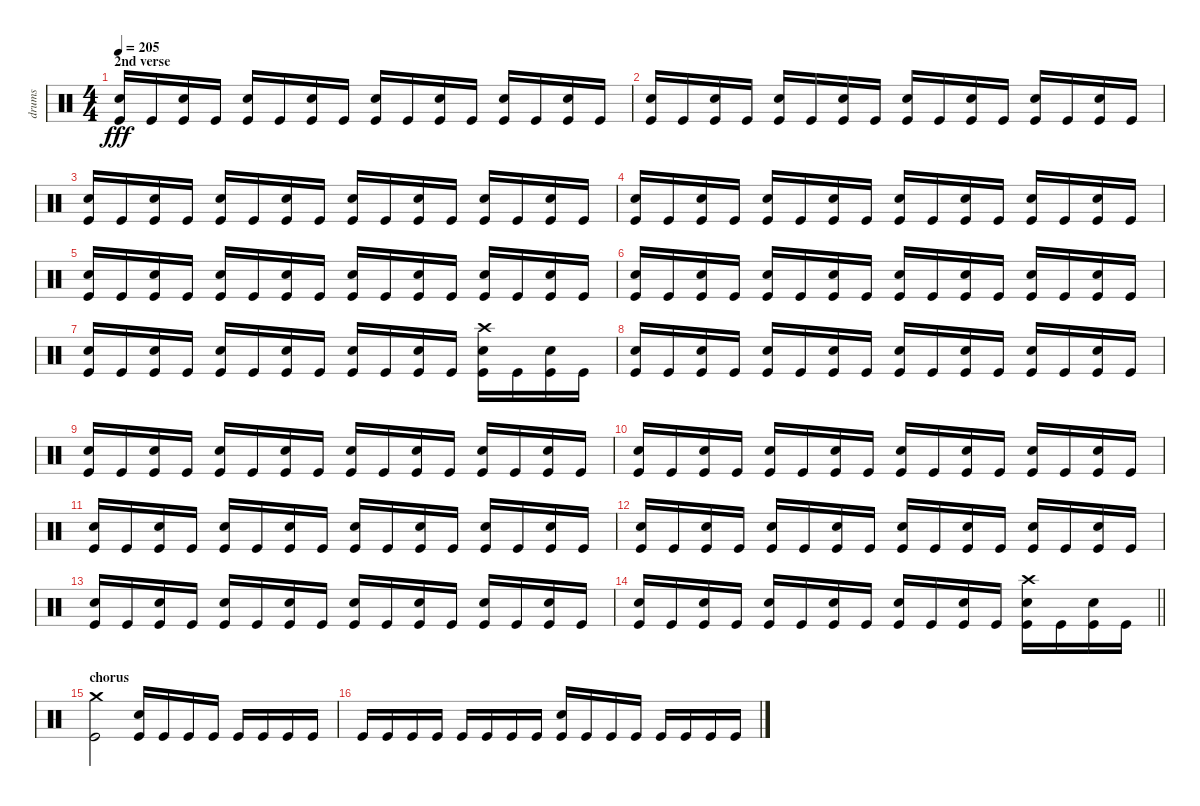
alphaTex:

\track ("drums" "drums") {instrument percussion}
\staff {score}
\articulation defaults
\ts (4 4)
\section ("" "2nd verse")
\tempo 205
\clef neutral
\ks c
("Electric Snare (hit)" "Kick (hit)").16{dy fff} "Kick (hit)".16 ("Electric Snare (hit)" "Kick (hit)").16 "Kick (hit)".16 ("Electric Snare (hit)" "Kick (hit)").16 "Kick (hit)".16 ("Electric Snare (hit)" "Kick (hit)").16 "Kick (hit)".16 ("Electric Snare (hit)" "Kick (hit)").16 "Kick (hit)".16 ("Electric Snare (hit)" "Kick (hit)").16 "Kick (hit)".16 ("Electric Snare (hit)" "Kick (hit)").16 "Kick (hit)".16 ("Electric Snare (hit)" "Kick (hit)").16 "Kick (hit)".16 |
("Electric Snare (hit)" "Kick (hit)").16 "Kick (hit)".16 ("Electric Snare (hit)" "Kick (hit)").16 "Kick (hit)".16 ("Electric Snare (hit)" "Kick (hit)").16 "Kick (hit)".16 ("Electric Snare (hit)" "Kick (hit)").16 "Kick (hit)".16 ("Electric Snare (hit)" "Kick (hit)").16 "Kick (hit)".16 ("Electric Snare (hit)" "Kick (hit)").16 "Kick (hit)".16 ("Electric Snare (hit)" "Kick (hit)").16 "Kick (hit)".16 ("Electric Snare (hit)" "Kick (hit)").16 "Kick (hit)".16 |
("Electric Snare (hit)" "Kick (hit)").16 "Kick (hit)".16 ("Electric Snare (hit)" "Kick (hit)").16 "Kick (hit)".16 ("Electric Snare (hit)" "Kick (hit)").16 "Kick (hit)".16 ("Electric Snare (hit)" "Kick (hit)").16 "Kick (hit)".16 ("Electric Snare (hit)" "Kick (hit)").16 "Kick (hit)".16 ("Electric Snare (hit)" "Kick (hit)").16 "Kick (hit)".16 ("Electric Snare (hit)" "Kick (hit)").16 "Kick (hit)".16 ("Electric Snare (hit)" "Kick (hit)").16 "Kick (hit)".16 |
("Electric Snare (hit)" "Kick (hit)").16 "Kick (hit)".16 ("Electric Snare (hit)" "Kick (hit)").16 "Kick (hit)".16 ("Electric Snare (hit)" "Kick (hit)").16 "Kick (hit)".16 ("Electric Snare (hit)" "Kick (hit)").16 "Kick (hit)".16 ("Electric Snare (hit)" "Kick (hit)").16 "Kick (hit)".16 ("Electric Snare (hit)" "Kick (hit)").16 "Kick (hit)".16 ("Electric Snare (hit)" "Kick (hit)").16 "Kick (hit)".16 ("Electric Snare (hit)" "Kick (hit)").16 "Kick (hit)".16 |
("Electric Snare (hit)" "Kick (hit)").16 "Kick (hit)".16 ("Electric Snare (hit)" "Kick (hit)").16 "Kick (hit)".16 ("Electric Snare (hit)" "Kick (hit)").16 "Kick (hit)".16 ("Electric Snare (hit)" "Kick (hit)").16 "Kick (hit)".16 ("Electric Snare (hit)" "Kick (hit)").16 "Kick (hit)".16 ("Electric Snare (hit)" "Kick (hit)").16 "Kick (hit)".16 ("Electric Snare (hit)" "Kick (hit)").16 "Kick (hit)".16 ("Electric Snare (hit)" "Kick (hit)").16 "Kick (hit)".16 |
("Electric Snare (hit)" "Kick (hit)").16 "Kick (hit)".16 ("Electric Snare (hit)" "Kick (hit)").16 "Kick (hit)".16 ("Electric Snare (hit)" "Kick (hit)").16 "Kick (hit)".16 ("Electric Snare (hit)" "Kick (hit)").16 "Kick (hit)".16 ("Electric Snare (hit)" "Kick (hit)").16 "Kick (hit)".16 ("Electric Snare (hit)" "Kick (hit)").16 "Kick (hit)".16 ("Electric Snare (hit)" "Kick (hit)").16 "Kick (hit)".16 ("Electric Snare (hit)" "Kick (hit)").16 "Kick (hit)".16 |
("Electric Snare (hit)" "Kick (hit)").16 "Kick (hit)".16 ("Electric Snare (hit)" "Kick (hit)").16 "Kick (hit)".16 ("Electric Snare (hit)" "Kick (hit)").16 "Kick (hit)".16 ("Electric Snare (hit)" "Kick (hit)").16 "Kick (hit)".16 ("Electric Snare (hit)" "Kick (hit)").16 "Kick (hit)".16 ("Electric Snare (hit)" "Kick (hit)").16 "Kick (hit)".16 ("Crash high (hit)" "Electric Snare (hit)" "Kick (hit)").16 "Kick (hit)".16 ("Electric Snare (hit)" "Kick (hit)").16 "Kick (hit)".16 |
("Electric Snare (hit)" "Kick (hit)").16 "Kick (hit)".16 ("Electric Snare (hit)" "Kick (hit)").16 "Kick (hit)".16 ("Electric Snare (hit)" "Kick (hit)").16 "Kick (hit)".16 ("Electric Snare (hit)" "Kick (hit)").16 "Kick (hit)".16 ("Electric Snare (hit)" "Kick (hit)").16 "Kick (hit)".16 ("Electric Snare (hit)" "Kick (hit)").16 "Kick (hit)".16 ("Electric Snare (hit)" "Kick (hit)").16 "Kick (hit)".16 ("Electric Snare (hit)" "Kick (hit)").16 "Kick (hit)".16 |
("Electric Snare (hit)" "Kick (hit)").16 "Kick (hit)".16 ("Electric Snare (hit)" "Kick (hit)").16 "Kick (hit)".16 ("Electric Snare (hit)" "Kick (hit)").16 "Kick (hit)".16 ("Electric Snare (hit)" "Kick (hit)").16 "Kick (hit)".16 ("Electric Snare (hit)" "Kick (hit)").16 "Kick (hit)".16 ("Electric Snare (hit)" "Kick (hit)").16 "Kick (hit)".16 ("Electric Snare (hit)" "Kick (hit)").16 "Kick (hit)".16 ("Electric Snare (hit)" "Kick (hit)").16 "Kick (hit)".16 |
("Electric Snare (hit)" "Kick (hit)").16 "Kick (hit)".16 ("Electric Snare (hit)" "Kick (hit)").16 "Kick (hit)".16 ("Electric Snare (hit)" "Kick (hit)").16 "Kick (hit)".16 ("Electric Snare (hit)" "Kick (hit)").16 "Kick (hit)".16 ("Electric Snare (hit)" "Kick (hit)").16 "Kick (hit)".16 ("Electric Snare (hit)" "Kick (hit)").16 "Kick (hit)".16 ("Electric Snare (hit)" "Kick (hit)").16 "Kick (hit)".16 ("Electric Snare (hit)" "Kick (hit)").16 "Kick (hit)".16 |
("Electric Snare (hit)" "Kick (hit)").16 "Kick (hit)".16 ("Electric Snare (hit)" "Kick (hit)").16 "Kick (hit)".16 ("Electric Snare (hit)" "Kick (hit)").16 "Kick (hit)".16 ("Electric Snare (hit)" "Kick (hit)").16 "Kick (hit)".16 ("Electric Snare (hit)" "Kick (hit)").16 "Kick (hit)".16 ("Electric Snare (hit)" "Kick (hit)").16 "Kick (hit)".16 ("Electric Snare (hit)" "Kick (hit)").16 "Kick (hit)".16 ("Electric Snare (hit)" "Kick (hit)").16 "Kick (hit)".16 |
("Electric Snare (hit)" "Kick (hit)").16 "Kick (hit)".16 ("Electric Snare (hit)" "Kick (hit)").16 "Kick (hit)".16 ("Electric Snare (hit)" "Kick (hit)").16 "Kick (hit)".16 ("Electric Snare (hit)" "Kick (hit)").16 "Kick (hit)".16 ("Electric Snare (hit)" "Kick (hit)").16 "Kick (hit)".16 ("Electric Snare (hit)" "Kick (hit)").16 "Kick (hit)".16 ("Electric Snare (hit)" "Kick (hit)").16 "Kick (hit)".16 ("Electric Snare (hit)" "Kick (hit)").16 "Kick (hit)".16 |
("Electric Snare (hit)" "Kick (hit)").16 "Kick (hit)".16 ("Electric Snare (hit)" "Kick (hit)").16 "Kick (hit)".16 ("Electric Snare (hit)" "Kick (hit)").16 "Kick (hit)".16 ("Electric Snare (hit)" "Kick (hit)").16 "Kick (hit)".16 ("Electric Snare (hit)" "Kick (hit)").16 "Kick (hit)".16 ("Electric Snare (hit)" "Kick (hit)").16 "Kick (hit)".16 ("Electric Snare (hit)" "Kick (hit)").16 "Kick (hit)".16 ("Electric Snare (hit)" "Kick (hit)").16 "Kick (hit)".16 |
\barLineRight lightlight
("Electric Snare (hit)" "Kick (hit)").16 "Kick (hit)".16 ("Electric Snare (hit)" "Kick (hit)").16 "Kick (hit)".16 ("Electric Snare (hit)" "Kick (hit)").16 "Kick (hit)".16 ("Electric Snare (hit)" "Kick (hit)").16 "Kick (hit)".16 ("Electric Snare (hit)" "Kick (hit)").16 "Kick (hit)".16 ("Electric Snare (hit)" "Kick (hit)").16 "Kick (hit)".16 ("Crash high (hit)" "Electric Snare (hit)" "Kick (hit)").16 "Kick (hit)".16 ("Electric Snare (hit)" "Kick (hit)").16 "Kick (hit)".16 |
\section ("" "chorus")
("Crash medium (hit)" "Kick (hit)").2 ("Electric Snare (hit)" "Kick (hit)").16 "Kick (hit)".16 "Kick (hit)".16 "Kick (hit)".16 "Kick (hit)".16 "Kick (hit)".16 "Kick (hit)".16 "Kick (hit)".16 |
"Kick (hit)".16 "Kick (hit)".16 "Kick (hit)".16 "Kick (hit)".16 "Kick (hit)".16 "Kick (hit)".16 "Kick (hit)".16 "Kick (hit)".16 ("Electric Snare (hit)" "Kick (hit)").16 "Kick (hit)".16 "Kick (hit)".16 "Kick (hit)".16 "Kick (hit)".16 "Kick (hit)".16 "Kick (hit)".16 "Kick (hit)".16
